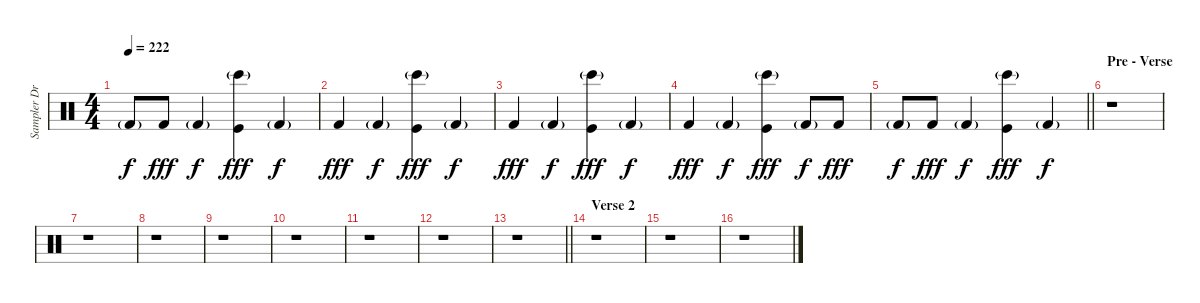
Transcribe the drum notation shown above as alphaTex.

\track ("Sampler Drums 2" "Sampler Dr") {instrument percussion}
\staff {score}
\articulation defaults
\ts (4 4)
\tempo 222
\clef neutral
\ks c "Kick (hit) 2"{g}.8{dy f} "Kick (hit) 2".8{dy fff} "Kick (hit) 2"{g}.4{dy f}
("Kick (hit)" "Bongo High (hit)"{g}).4{dy fff} "Kick (hit) 2"{g}.4{dy f} |
"Kick (hit) 2".4{dy fff volume 10} "Kick (hit) 2"{g}.4{dy f} ("Kick (hit)" "Bongo High (hit)"{g}).4{dy fff} "Kick (hit) 2"{g}.4{dy f} |
"Kick (hit) 2".4{dy fff} "Kick (hit) 2"{g}.4{dy f} ("Kick (hit)" "Bongo High (hit)"{g}).4{dy fff} "Kick (hit) 2"{g}.4{dy f} |
"Kick (hit) 2".4{dy fff} "Kick (hit) 2"{g}.4{dy f} ("Kick (hit)" "Bongo High (hit)"{g}).4{dy fff} "Kick (hit) 2"{g}.8{dy f} "Kick (hit) 2".8{dy fff} |
\barLineRight lightlight "Kick (hit) 2"{g}.8{dy f} "Kick (hit) 2".8{dy fff} "Kick (hit) 2"{g}.4{dy f}
("Kick (hit)" "Bongo High (hit)"{g}).4{dy fff} "Kick (hit) 2"{g}.4{dy f} |
\section ("" "Pre - Verse")
r.1 |
r.1 |
r.1 |
r.1 |
r.1 |
r.1 |
r.1 |
\barLineRight lightlight
r.1 |
\section ("" "Verse 2")
r.1 |
r.1 |
r.1
